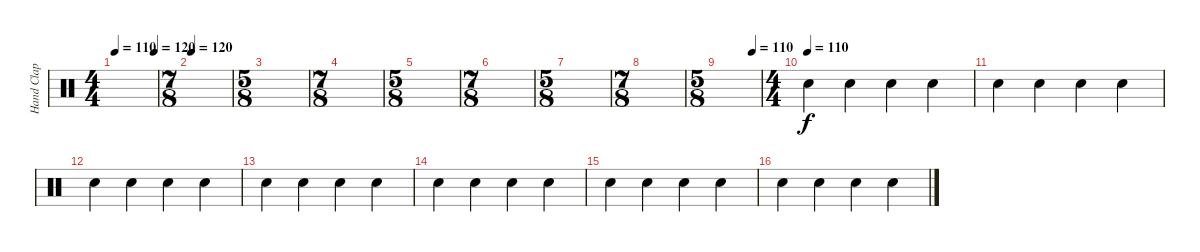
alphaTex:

\track ("Hand Clap" "Hand Clap") {instrument percussion}
\staff {score}
\articulation defaults
\ts (4 4)
\tempo 110
\tempo (120 0.9375)
\clef neutral
\ks c
|
\ts (7 8)
\tempo 120
|
\ts (5 8)
|
\ts (7 8)
|
\ts (5 8)
|
\ts (7 8)
|
\ts (5 8)
|
\ts (7 8)
|
\ts (5 8)
\tempo (110 0.8)
|
\ts (4 4)
\tempo (110)
"Hand Clap (hit)".4 "Hand Clap (hit)".4 "Hand Clap (hit)".4 "Hand Clap (hit)".4 |
"Hand Clap (hit)".4 "Hand Clap (hit)".4 "Hand Clap (hit)".4 "Hand Clap (hit)".4 |
"Hand Clap (hit)".4 "Hand Clap (hit)".4 "Hand Clap (hit)".4 "Hand Clap (hit)".4 |
"Hand Clap (hit)".4 "Hand Clap (hit)".4 "Hand Clap (hit)".4 "Hand Clap (hit)".4 |
"Hand Clap (hit)".4 "Hand Clap (hit)".4 "Hand Clap (hit)".4 "Hand Clap (hit)".4 |
"Hand Clap (hit)".4 "Hand Clap (hit)".4 "Hand Clap (hit)".4 "Hand Clap (hit)".4 |
"Hand Clap (hit)".4 "Hand Clap (hit)".4 "Hand Clap (hit)".4 "Hand Clap (hit)".4
